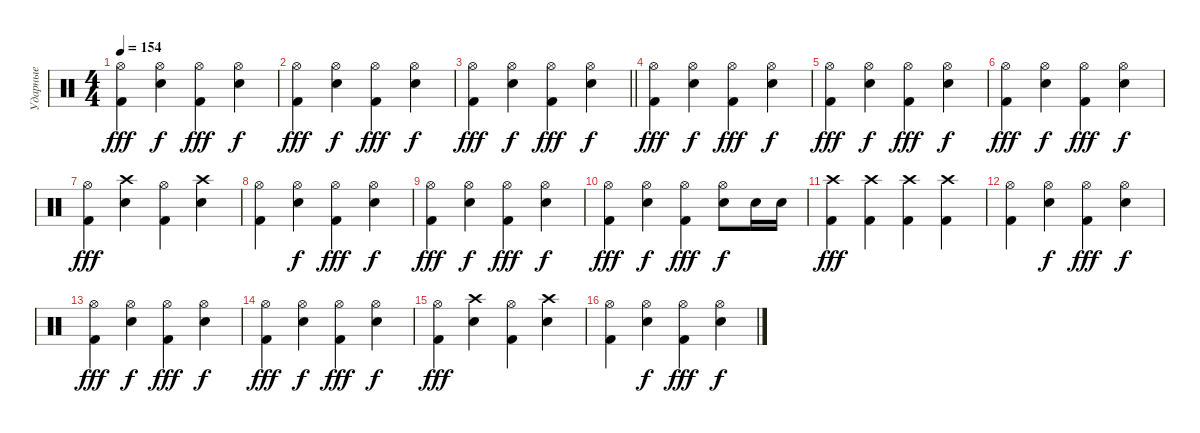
\track ("Ударные" "Ударные") {instrument percussion}
\staff
\articulation defaults
\ts (4 4)
\tempo 154
\clef neutral
\ks c
("Kick (hit) 2" "Hi-Hat (open)").4{dy fff} ("Snare (hit) 2" "Hi-Hat (open)").4{dy f} ("Kick (hit) 2" "Hi-Hat (open)").4{dy fff} ("Snare (hit) 2" "Hi-Hat (open)").4{dy f} |
("Kick (hit) 2" "Hi-Hat (open)").4{dy fff} ("Snare (hit) 2" "Hi-Hat (open)").4{dy f} ("Kick (hit) 2" "Hi-Hat (open)").4{dy fff} ("Snare (hit) 2" "Hi-Hat (open)").4{dy f} |
\barLineRight lightlight
("Kick (hit) 2" "Hi-Hat (open)").4{dy fff} ("Snare (hit) 2" "Hi-Hat (open)").4{dy f} ("Kick (hit) 2" "Hi-Hat (open)").4{dy fff} ("Snare (hit) 2" "Hi-Hat (open)").4{dy f} |
("Kick (hit) 2" "Hi-Hat (open)").4{dy fff} ("Snare (hit) 2" "Hi-Hat (open)").4{dy f} ("Kick (hit) 2" "Hi-Hat (open)").4{dy fff} ("Snare (hit) 2" "Hi-Hat (open)").4{dy f} |
("Kick (hit) 2" "Hi-Hat (open)").4{dy fff} ("Snare (hit) 2" "Hi-Hat (open)").4{dy f} ("Kick (hit) 2" "Hi-Hat (open)").4{dy fff} ("Snare (hit) 2" "Hi-Hat (open)").4{dy f} |
("Kick (hit) 2" "Hi-Hat (open)").4{dy fff} ("Snare (hit) 2" "Hi-Hat (open)").4{dy f} ("Kick (hit) 2" "Hi-Hat (open)").4{dy fff} ("Snare (hit) 2" "Hi-Hat (open)").4{dy f} |
("Kick (hit) 2" "Hi-Hat (open)").4{dy fff} ("Snare (hit) 2" "Crash high (hit)").4 ("Kick (hit) 2" "Hi-Hat (open)").4 ("Snare (hit) 2" "Crash high (hit)").4 |
("Kick (hit) 2" "Hi-Hat (open)").4 ("Snare (hit) 2" "Hi-Hat (open)").4{dy f} ("Kick (hit) 2" "Hi-Hat (open)").4{dy fff} ("Snare (hit) 2" "Hi-Hat (open)").4{dy f} |
("Kick (hit) 2" "Hi-Hat (open)").4{dy fff} ("Snare (hit) 2" "Hi-Hat (open)").4{dy f} ("Kick (hit) 2" "Hi-Hat (open)").4{dy fff} ("Snare (hit) 2" "Hi-Hat (open)").4{dy f} |
("Kick (hit) 2" "Hi-Hat (open)").4{dy fff} ("Snare (hit) 2" "Hi-Hat (open)").4{dy f} ("Kick (hit) 2" "Hi-Hat (open)").4{dy fff} ("Snare (hit) 2" "Hi-Hat (open)").8{dy f} "Snare (hit) 2".16 "Snare (hit) 2".16 |
("Kick (hit) 2" "Crash high (hit)").4{dy fff} ("Kick (hit) 2" "Crash high (hit)").4 ("Kick (hit) 2" "Crash high (hit)").4 ("Kick (hit) 2" "Crash high (hit)").4 |
("Kick (hit) 2" "Hi-Hat (open)").4 ("Snare (hit) 2" "Hi-Hat (open)").4{dy f} ("Kick (hit) 2" "Hi-Hat (open)").4{dy fff} ("Snare (hit) 2" "Hi-Hat (open)").4{dy f} |
("Kick (hit) 2" "Hi-Hat (open)").4{dy fff} ("Snare (hit) 2" "Hi-Hat (open)").4{dy f} ("Kick (hit) 2" "Hi-Hat (open)").4{dy fff} ("Snare (hit) 2" "Hi-Hat (open)").4{dy f} |
("Kick (hit) 2" "Hi-Hat (open)").4{dy fff} ("Snare (hit) 2" "Hi-Hat (open)").4{dy f} ("Kick (hit) 2" "Hi-Hat (open)").4{dy fff} ("Snare (hit) 2" "Hi-Hat (open)").4{dy f} |
("Kick (hit) 2" "Hi-Hat (open)").4{dy fff} ("Snare (hit) 2" "Crash high (hit)").4 ("Kick (hit) 2" "Hi-Hat (open)").4 ("Snare (hit) 2" "Crash high (hit)").4 |
("Kick (hit) 2" "Hi-Hat (open)").4 ("Snare (hit) 2" "Hi-Hat (open)").4{dy f} ("Kick (hit) 2" "Hi-Hat (open)").4{dy fff} ("Snare (hit) 2" "Hi-Hat (open)").4{dy f}
